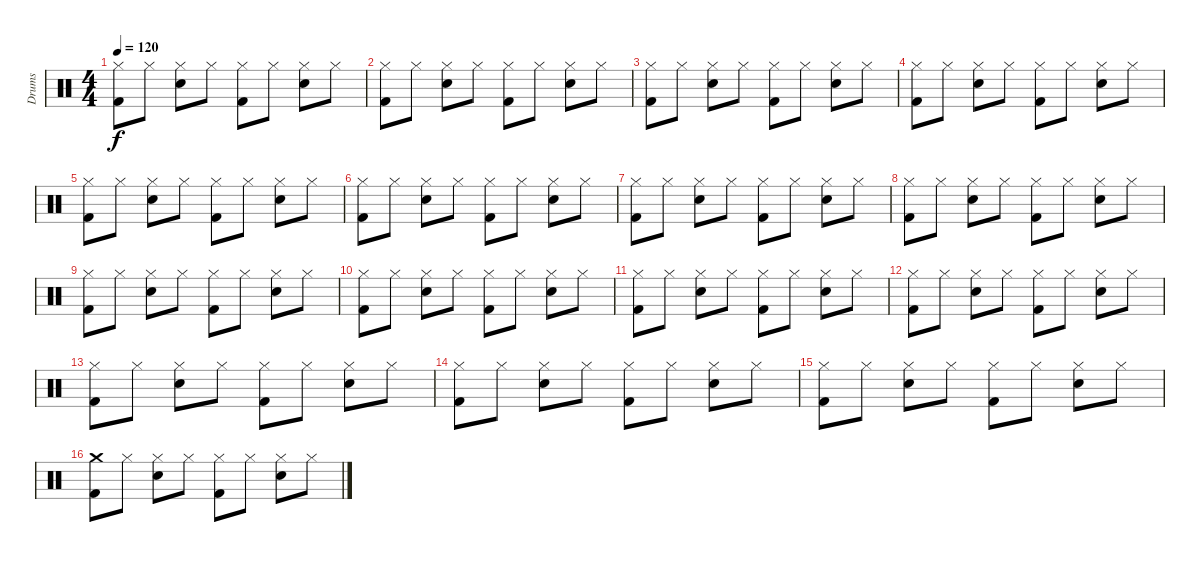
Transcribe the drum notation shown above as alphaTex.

\track ("Drums" "Drums") {instrument percussion}
\staff {score}
\articulation defaults
\ts (4 4)
\tempo 120
\clef neutral
\ks c
("Hi-Hat (closed)" "Kick (hit) 2").8{dy f} "Hi-Hat (closed)".8 ("Hi-Hat (closed)" "Snare (hit) 2").8 "Hi-Hat (closed)".8 ("Hi-Hat (closed)" "Kick (hit) 2").8 "Hi-Hat (closed)".8 ("Hi-Hat (closed)" "Snare (hit) 2").8 "Hi-Hat (closed)".8 |
("Hi-Hat (closed)" "Kick (hit) 2").8 "Hi-Hat (closed)".8 ("Hi-Hat (closed)" "Snare (hit) 2").8 "Hi-Hat (closed)".8 ("Hi-Hat (closed)" "Kick (hit) 2").8 "Hi-Hat (closed)".8 ("Hi-Hat (closed)" "Snare (hit) 2").8 "Hi-Hat (closed)".8 |
("Hi-Hat (closed)" "Kick (hit) 2").8 "Hi-Hat (closed)".8 ("Hi-Hat (closed)" "Snare (hit) 2").8 "Hi-Hat (closed)".8 ("Hi-Hat (closed)" "Kick (hit) 2").8 "Hi-Hat (closed)".8 ("Hi-Hat (closed)" "Snare (hit) 2").8 "Hi-Hat (closed)".8 |
("Hi-Hat (closed)" "Kick (hit) 2").8 "Hi-Hat (closed)".8 ("Hi-Hat (closed)" "Snare (hit) 2").8 "Hi-Hat (closed)".8 ("Hi-Hat (closed)" "Kick (hit) 2").8 "Hi-Hat (closed)".8 ("Hi-Hat (closed)" "Snare (hit) 2").8 "Hi-Hat (closed)".8 |
("Hi-Hat (closed)" "Kick (hit) 2").8 "Hi-Hat (closed)".8 ("Hi-Hat (closed)" "Snare (hit) 2").8 "Hi-Hat (closed)".8 ("Hi-Hat (closed)" "Kick (hit) 2").8 "Hi-Hat (closed)".8 ("Hi-Hat (closed)" "Snare (hit) 2").8 "Hi-Hat (closed)".8 |
("Hi-Hat (closed)" "Kick (hit) 2").8 "Hi-Hat (closed)".8 ("Hi-Hat (closed)" "Snare (hit) 2").8 "Hi-Hat (closed)".8 ("Hi-Hat (closed)" "Kick (hit) 2").8 "Hi-Hat (closed)".8 ("Hi-Hat (closed)" "Snare (hit) 2").8 "Hi-Hat (closed)".8 |
("Hi-Hat (closed)" "Kick (hit) 2").8 "Hi-Hat (closed)".8 ("Hi-Hat (closed)" "Snare (hit) 2").8 "Hi-Hat (closed)".8 ("Hi-Hat (closed)" "Kick (hit) 2").8 "Hi-Hat (closed)".8 ("Hi-Hat (closed)" "Snare (hit) 2").8 "Hi-Hat (closed)".8 |
("Hi-Hat (closed)" "Kick (hit) 2").8 "Hi-Hat (closed)".8 ("Hi-Hat (closed)" "Snare (hit) 2").8 "Hi-Hat (closed)".8 ("Hi-Hat (closed)" "Kick (hit) 2").8 "Hi-Hat (closed)".8 ("Hi-Hat (closed)" "Snare (hit) 2").8 "Hi-Hat (closed)".8 |
("Hi-Hat (closed)" "Kick (hit) 2").8 "Hi-Hat (closed)".8 ("Hi-Hat (closed)" "Snare (hit) 2").8 "Hi-Hat (closed)".8 ("Hi-Hat (closed)" "Kick (hit) 2").8 "Hi-Hat (closed)".8 ("Hi-Hat (closed)" "Snare (hit) 2").8 "Hi-Hat (closed)".8 |
("Hi-Hat (closed)" "Kick (hit) 2").8 "Hi-Hat (closed)".8 ("Hi-Hat (closed)" "Snare (hit) 2").8 "Hi-Hat (closed)".8 ("Hi-Hat (closed)" "Kick (hit) 2").8 "Hi-Hat (closed)".8 ("Hi-Hat (closed)" "Snare (hit) 2").8 "Hi-Hat (closed)".8 |
("Hi-Hat (closed)" "Kick (hit) 2").8 "Hi-Hat (closed)".8 ("Hi-Hat (closed)" "Snare (hit) 2").8 "Hi-Hat (closed)".8 ("Hi-Hat (closed)" "Kick (hit) 2").8 "Hi-Hat (closed)".8 ("Hi-Hat (closed)" "Snare (hit) 2").8 "Hi-Hat (closed)".8 |
("Hi-Hat (closed)" "Kick (hit) 2").8 "Hi-Hat (closed)".8 ("Hi-Hat (closed)" "Snare (hit) 2").8 "Hi-Hat (closed)".8 ("Hi-Hat (closed)" "Kick (hit) 2").8 "Hi-Hat (closed)".8 ("Hi-Hat (closed)" "Snare (hit) 2").8 "Hi-Hat (closed)".8 |
("Hi-Hat (closed)" "Kick (hit) 2").8 "Hi-Hat (closed)".8 ("Hi-Hat (closed)" "Snare (hit) 2").8 "Hi-Hat (closed)".8 ("Hi-Hat (closed)" "Kick (hit) 2").8 "Hi-Hat (closed)".8 ("Hi-Hat (closed)" "Snare (hit) 2").8 "Hi-Hat (closed)".8 |
("Hi-Hat (closed)" "Kick (hit) 2").8 "Hi-Hat (closed)".8 ("Hi-Hat (closed)" "Snare (hit) 2").8 "Hi-Hat (closed)".8 ("Hi-Hat (closed)" "Kick (hit) 2").8 "Hi-Hat (closed)".8 ("Hi-Hat (closed)" "Snare (hit) 2").8 "Hi-Hat (closed)".8 |
("Hi-Hat (closed)" "Kick (hit) 2").8 "Hi-Hat (closed)".8 ("Hi-Hat (closed)" "Snare (hit) 2").8 "Hi-Hat (closed)".8 ("Hi-Hat (closed)" "Kick (hit) 2").8 "Hi-Hat (closed)".8 ("Hi-Hat (closed)" "Snare (hit) 2").8 "Hi-Hat (closed)".8 |
("Crash medium (hit)" "Kick (hit) 2").8 "Hi-Hat (closed)".8 ("Hi-Hat (closed)" "Snare (hit) 2").8 "Hi-Hat (closed)".8 ("Hi-Hat (closed)" "Kick (hit) 2").8 "Hi-Hat (closed)".8 ("Hi-Hat (closed)" "Snare (hit) 2").8 "Hi-Hat (closed)".8
